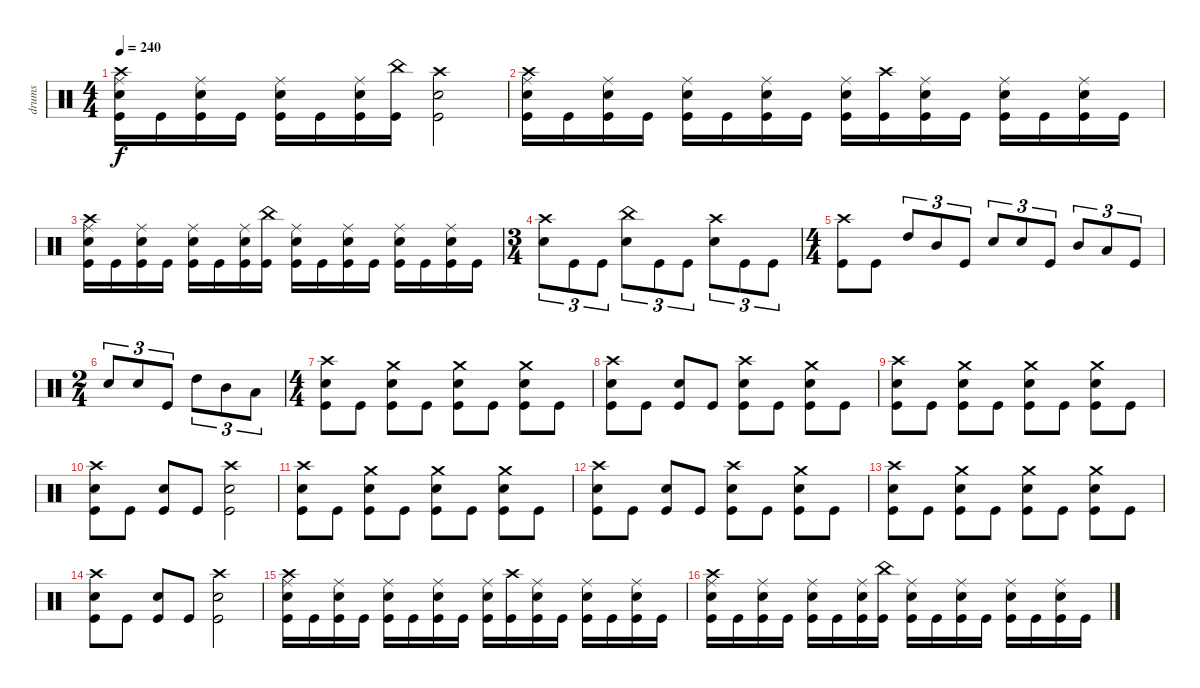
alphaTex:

\track ("drums" "drums") {instrument percussion}
\staff {score}
\articulation defaults
\ts (4 4)
\tempo 240
\clef neutral
\ks c
("Crash high (hit)" "Ride (middle)" "Electric Snare (hit)" "Kick (hit)").16{dy f} "Kick (hit)".16 ("Ride (middle)" "Electric Snare (hit)" "Kick (hit)").16 "Kick (hit)".16 ("Ride (middle)" "Electric Snare (hit)" "Kick (hit)").16 "Kick (hit)".16 ("Ride (middle)" "Electric Snare (hit)" "Kick (hit)").16 ("China (hit)" "Kick (hit)").16 ("Crash high (hit)" "Electric Snare (hit)" "Kick (hit)").2 |
("Crash high (hit)" "Ride (middle)" "Electric Snare (hit)" "Kick (hit)").16 "Kick (hit)".16 ("Ride (middle)" "Electric Snare (hit)" "Kick (hit)").16 "Kick (hit)".16 ("Ride (middle)" "Electric Snare (hit)" "Kick (hit)").16 "Kick (hit)".16 ("Ride (middle)" "Electric Snare (hit)" "Kick (hit)").16 "Kick (hit)".16 ("Ride (middle)" "Electric Snare (hit)" "Kick (hit)").16 ("Crash high (hit)" "Kick (hit)").16 ("Ride (middle)" "Electric Snare (hit)" "Kick (hit)").16 "Kick (hit)".16 ("Ride (middle)" "Electric Snare (hit)" "Kick (hit)").16 "Kick (hit)".16 ("Ride (middle)" "Electric Snare (hit)" "Kick (hit)").16 "Kick (hit)".16 |
("Crash high (hit)" "Ride (middle)" "Electric Snare (hit)" "Kick (hit)").16 "Kick (hit)".16 ("Ride (middle)" "Electric Snare (hit)" "Kick (hit)").16 "Kick (hit)".16 ("Ride (middle)" "Electric Snare (hit)" "Kick (hit)").16 "Kick (hit)".16 ("Ride (middle)" "Electric Snare (hit)" "Kick (hit)").16 ("China (hit)" "Kick (hit)").16 ("Ride (middle)" "Electric Snare (hit)" "Kick (hit)").16 "Kick (hit)".16 ("Ride (middle)" "Electric Snare (hit)" "Kick (hit)").16 "Kick (hit)".16 ("Ride (middle)" "Electric Snare (hit)" "Kick (hit)").16 "Kick (hit)".16 ("Ride (middle)" "Electric Snare (hit)" "Kick (hit)").16 "Kick (hit)".16 |
\ts (3 4)
("Crash high (hit)" "Electric Snare (hit)").8{tu (3 2)} "Kick (hit)".8{tu (3 2)} "Kick (hit)".8{tu (3 2)} ("China (hit)" "Electric Snare (hit)").8{tu (3 2)} "Kick (hit)".8{tu (3 2)} "Kick (hit)".8{tu (3 2)} ("Crash high (hit)" "Electric Snare (hit)").8{tu (3 2)} "Kick (hit)".8{tu (3 2)} "Kick (hit)".8{tu (3 2)} |
\ts (4 4)
("Crash high (hit)" "Kick (hit)").8 "Kick (hit)".8 "High Tom (hit)".8{tu (3 2)} "Mid Tom (hit)".8{tu (3 2)} "Kick (hit)".8{tu (3 2)} "Electric Snare (hit)".8{tu (3 2)} "Electric Snare (hit)".8{tu (3 2)} "Kick (hit)".8{tu (3 2)} "Mid Tom (hit)".8{tu (3 2)} "Low Tom (hit)".8{tu (3 2)} "Kick (hit)".8{tu (3 2)} |
\ts (2 4)
"Electric Snare (hit)".8{tu (3 2)} "Electric Snare (hit)".8{tu (3 2)} "Kick (hit)".8{tu (3 2)} "High Tom (hit)".8{tu (3 2)} "Mid Tom (hit)".8{tu (3 2)} "Low Tom (hit)".8{tu (3 2)} |
\ts (4 4)
("Crash high (hit)" "Electric Snare (hit)" "Kick (hit)").8 "Kick (hit)".8 ("Crash medium (hit)" "Electric Snare (hit)" "Kick (hit)").8 "Kick (hit)".8 ("Crash medium (hit)" "Electric Snare (hit)" "Kick (hit)").8 "Kick (hit)".8 ("Crash medium (hit)" "Electric Snare (hit)" "Kick (hit)").8 "Kick (hit)".8 |
("Crash high (hit)" "Electric Snare (hit)" "Kick (hit)").8 "Kick (hit)".8 ("Electric Snare (hit)" "Kick (hit)").8 "Kick (hit)".8 ("Crash high (hit)" "Electric Snare (hit)" "Kick (hit)").8 "Kick (hit)".8 ("Crash medium (hit)" "Electric Snare (hit)" "Kick (hit)").8 "Kick (hit)".8 |
("Crash high (hit)" "Electric Snare (hit)" "Kick (hit)").8 "Kick (hit)".8 ("Crash medium (hit)" "Electric Snare (hit)" "Kick (hit)").8 "Kick (hit)".8 ("Crash medium (hit)" "Electric Snare (hit)" "Kick (hit)").8 "Kick (hit)".8 ("Crash medium (hit)" "Electric Snare (hit)" "Kick (hit)").8 "Kick (hit)".8 |
("Crash high (hit)" "Electric Snare (hit)" "Kick (hit)").8 "Kick (hit)".8 ("Electric Snare (hit)" "Kick (hit)").8 "Kick (hit)".8 ("Crash high (hit)" "Electric Snare (hit)" "Kick (hit)").2 |
("Crash high (hit)" "Electric Snare (hit)" "Kick (hit)").8 "Kick (hit)".8 ("Crash medium (hit)" "Electric Snare (hit)" "Kick (hit)").8 "Kick (hit)".8 ("Crash medium (hit)" "Electric Snare (hit)" "Kick (hit)").8 "Kick (hit)".8 ("Crash medium (hit)" "Electric Snare (hit)" "Kick (hit)").8 "Kick (hit)".8 |
("Crash high (hit)" "Electric Snare (hit)" "Kick (hit)").8 "Kick (hit)".8 ("Electric Snare (hit)" "Kick (hit)").8 "Kick (hit)".8 ("Crash high (hit)" "Electric Snare (hit)" "Kick (hit)").8 "Kick (hit)".8 ("Crash medium (hit)" "Electric Snare (hit)" "Kick (hit)").8 "Kick (hit)".8 |
("Crash high (hit)" "Electric Snare (hit)" "Kick (hit)").8 "Kick (hit)".8 ("Crash medium (hit)" "Electric Snare (hit)" "Kick (hit)").8 "Kick (hit)".8 ("Crash medium (hit)" "Electric Snare (hit)" "Kick (hit)").8 "Kick (hit)".8 ("Crash medium (hit)" "Electric Snare (hit)" "Kick (hit)").8 "Kick (hit)".8 |
("Crash high (hit)" "Electric Snare (hit)" "Kick (hit)").8 "Kick (hit)".8 ("Electric Snare (hit)" "Kick (hit)").8 "Kick (hit)".8 ("Crash high (hit)" "Electric Snare (hit)" "Kick (hit)").2 |
("Crash high (hit)" "Ride (middle)" "Electric Snare (hit)" "Kick (hit)").16 "Kick (hit)".16 ("Ride (middle)" "Electric Snare (hit)" "Kick (hit)").16 "Kick (hit)".16 ("Ride (middle)" "Electric Snare (hit)" "Kick (hit)").16 "Kick (hit)".16 ("Ride (middle)" "Electric Snare (hit)" "Kick (hit)").16 "Kick (hit)".16 ("Ride (middle)" "Electric Snare (hit)" "Kick (hit)").16 ("Crash high (hit)" "Kick (hit)").16 ("Ride (middle)" "Electric Snare (hit)" "Kick (hit)").16 "Kick (hit)".16 ("Ride (middle)" "Electric Snare (hit)" "Kick (hit)").16 "Kick (hit)".16 ("Ride (middle)" "Electric Snare (hit)" "Kick (hit)").16 "Kick (hit)".16 |
("Crash high (hit)" "Ride (middle)" "Electric Snare (hit)" "Kick (hit)").16 "Kick (hit)".16 ("Ride (middle)" "Electric Snare (hit)" "Kick (hit)").16 "Kick (hit)".16 ("Ride (middle)" "Electric Snare (hit)" "Kick (hit)").16 "Kick (hit)".16 ("Ride (middle)" "Electric Snare (hit)" "Kick (hit)").16 ("China (hit)" "Kick (hit)").16 ("Ride (middle)" "Electric Snare (hit)" "Kick (hit)").16 "Kick (hit)".16 ("Ride (middle)" "Electric Snare (hit)" "Kick (hit)").16 "Kick (hit)".16 ("Ride (middle)" "Electric Snare (hit)" "Kick (hit)").16 "Kick (hit)".16 ("Ride (middle)" "Electric Snare (hit)" "Kick (hit)").16 "Kick (hit)".16
